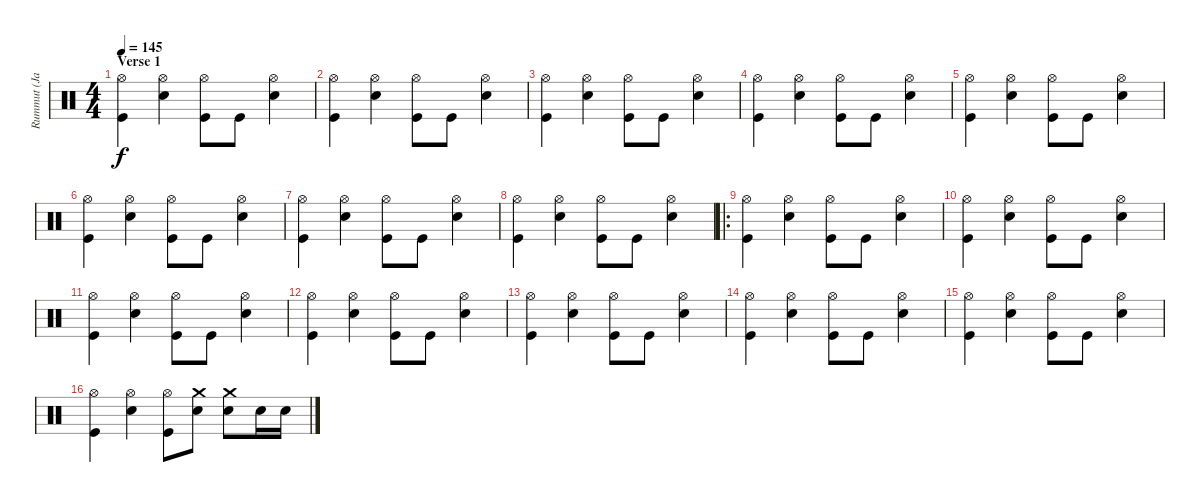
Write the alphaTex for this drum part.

\track ("Rummut (Janne)" "Rummut (Ja") {instrument percussion}
\staff {score}
\articulation defaults
\ts (4 4)
\section ("" "Verse 1")
\tempo 145
\clef neutral
\ks c
("Hi-Hat (open)" "Kick (hit)").4{dy f} ("Hi-Hat (open)" "Snare (hit) 2").4 ("Hi-Hat (open)" "Kick (hit)").8 "Kick (hit)".8 ("Hi-Hat (open)" "Snare (hit) 2").4 |
("Hi-Hat (open)" "Kick (hit)").4 ("Hi-Hat (open)" "Snare (hit) 2").4 ("Hi-Hat (open)" "Kick (hit)").8 "Kick (hit)".8 ("Hi-Hat (open)" "Snare (hit) 2").4 |
("Hi-Hat (open)" "Kick (hit)").4 ("Hi-Hat (open)" "Snare (hit) 2").4 ("Hi-Hat (open)" "Kick (hit)").8 "Kick (hit)".8 ("Hi-Hat (open)" "Snare (hit) 2").4 |
("Hi-Hat (open)" "Kick (hit)").4 ("Hi-Hat (open)" "Snare (hit) 2").4 ("Hi-Hat (open)" "Kick (hit)").8 "Kick (hit)".8 ("Hi-Hat (open)" "Snare (hit) 2").4 |
("Hi-Hat (open)" "Kick (hit)").4 ("Hi-Hat (open)" "Snare (hit) 2").4 ("Hi-Hat (open)" "Kick (hit)").8 "Kick (hit)".8 ("Hi-Hat (open)" "Snare (hit) 2").4 |
("Hi-Hat (open)" "Kick (hit)").4 ("Hi-Hat (open)" "Snare (hit) 2").4 ("Hi-Hat (open)" "Kick (hit)").8 "Kick (hit)".8 ("Hi-Hat (open)" "Snare (hit) 2").4 |
("Hi-Hat (open)" "Kick (hit)").4 ("Hi-Hat (open)" "Snare (hit) 2").4 ("Hi-Hat (open)" "Kick (hit)").8 "Kick (hit)".8 ("Hi-Hat (open)" "Snare (hit) 2").4 |
("Hi-Hat (open)" "Kick (hit)").4 ("Hi-Hat (open)" "Snare (hit) 2").4 ("Hi-Hat (open)" "Kick (hit)").8 "Kick (hit)".8 ("Hi-Hat (open)" "Snare (hit) 2").4 |
\ro
("Hi-Hat (open)" "Kick (hit)").4 ("Hi-Hat (open)" "Snare (hit) 2").4 ("Hi-Hat (open)" "Kick (hit)").8 "Kick (hit)".8 ("Hi-Hat (open)" "Snare (hit) 2").4 |
("Hi-Hat (open)" "Kick (hit)").4 ("Hi-Hat (open)" "Snare (hit) 2").4 ("Hi-Hat (open)" "Kick (hit)").8 "Kick (hit)".8 ("Hi-Hat (open)" "Snare (hit) 2").4 |
("Hi-Hat (open)" "Kick (hit)").4 ("Hi-Hat (open)" "Snare (hit) 2").4 ("Hi-Hat (open)" "Kick (hit)").8 "Kick (hit)".8 ("Hi-Hat (open)" "Snare (hit) 2").4 |
("Hi-Hat (open)" "Kick (hit)").4 ("Hi-Hat (open)" "Snare (hit) 2").4 ("Hi-Hat (open)" "Kick (hit)").8 "Kick (hit)".8 ("Hi-Hat (open)" "Snare (hit) 2").4 |
("Hi-Hat (open)" "Kick (hit)").4 ("Hi-Hat (open)" "Snare (hit) 2").4 ("Hi-Hat (open)" "Kick (hit)").8 "Kick (hit)".8 ("Hi-Hat (open)" "Snare (hit) 2").4 |
("Hi-Hat (open)" "Kick (hit)").4 ("Hi-Hat (open)" "Snare (hit) 2").4 ("Hi-Hat (open)" "Kick (hit)").8 "Kick (hit)".8 ("Hi-Hat (open)" "Snare (hit) 2").4 |
("Hi-Hat (open)" "Kick (hit)").4 ("Hi-Hat (open)" "Snare (hit) 2").4 ("Hi-Hat (open)" "Kick (hit)").8 "Kick (hit)".8 ("Hi-Hat (open)" "Snare (hit) 2").4 |
("Hi-Hat (open)" "Kick (hit)").4 ("Hi-Hat (open)" "Snare (hit) 2").4 ("Hi-Hat (open)" "Kick (hit)").8 ("Crash medium (hit)" "Snare (hit) 2").8 ("Crash medium (hit)" "Snare (hit) 2").8 "Snare (hit) 2".16 "Snare (hit) 2".16
